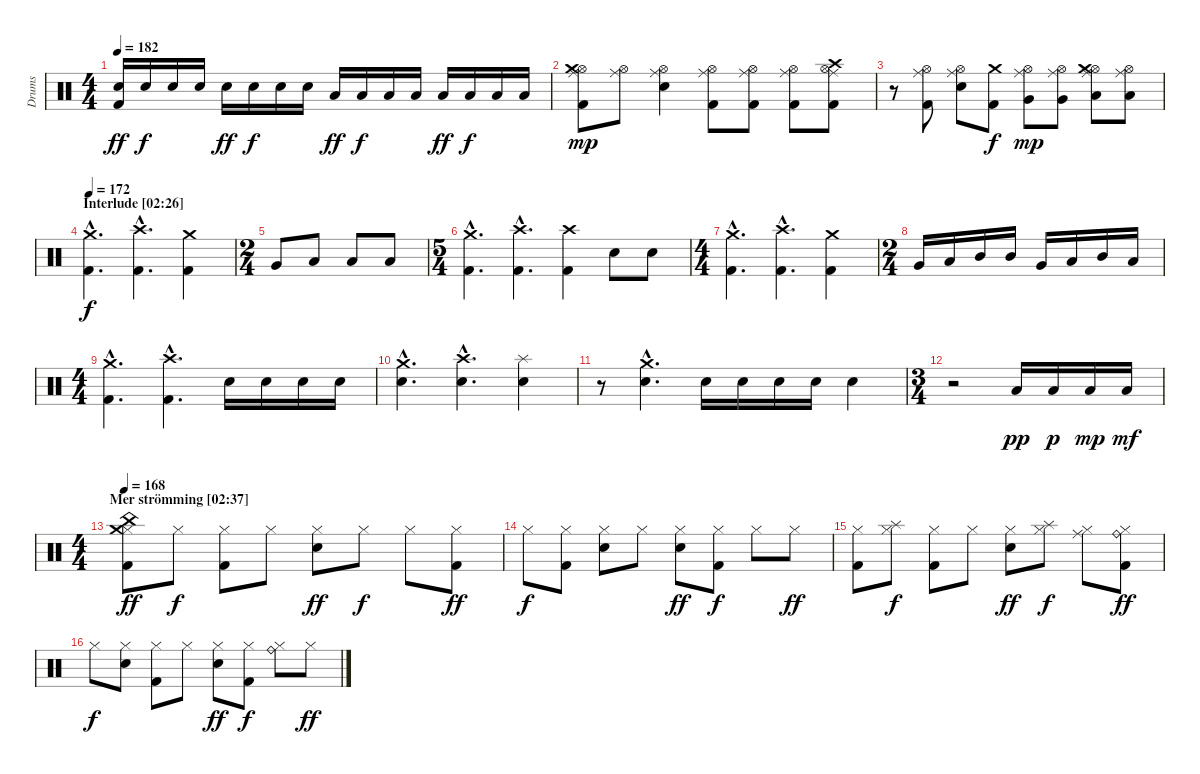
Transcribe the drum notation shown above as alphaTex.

\track ("Drums" "Drums") {instrument percussion}
\staff {score}
\articulation defaults
\ts (4 4)
\tempo 182
\clef neutral
\ks c
("Electric Snare (hit)" "Kick (hit) 2").16{dy ff} "Electric Snare (hit)".16{dy f} "Electric Snare (hit)".16 "Electric Snare (hit)".16 "Electric Snare (hit)".16{dy ff} "Electric Snare (hit)".16{dy f} "Electric Snare (hit)".16 "Electric Snare (hit)".16 "Low Tom (hit)".16{dy ff} "Low Tom (hit)".16{dy f} "Low Tom (hit)".16 "Low Tom (hit)".16 "Low Tom (hit)".16{dy ff} "Low Tom (hit)".16{dy f} "Low Tom (hit)".16 "Low Tom (hit)".16 |
("Ride (middle)" "Hi-Hat (open)" "Crash medium (hit)" "Kick (hit) 2").8{dy mp} ("Ride (middle)" "Hi-Hat (open)").8 ("Ride (middle)" "Hi-Hat (open)" "Electric Snare (hit)").4 ("Ride (middle)" "Hi-Hat (open)" "Kick (hit) 2").8 ("Ride (middle)" "Hi-Hat (open)" "Kick (hit) 2").8 ("Ride (middle)" "Hi-Hat (open)" "Kick (hit) 2").8 ("Ride (middle)" "Hi-Hat (open)" "Crash high (hit)" "Kick (hit) 2").8 |
r.8 ("Ride (middle)" "Hi-Hat (open)" "Kick (hit) 2").8 ("Ride (middle)" "Hi-Hat (open)" "Electric Snare (hit)").8 ("Crash medium (hit)" "Kick (hit) 2").8{dy f} ("Ride (middle)" "Hi-Hat (open)" "Very Low Tom (hit)").8{dy mp} ("Ride (middle)" "Hi-Hat (open)" "Very Low Tom (hit)").8 ("Ride (middle)" "Hi-Hat (open)" "Crash medium (hit)" "Low Tom (hit)").8 ("Ride (middle)" "Hi-Hat (open)" "Low Floor Tom (hit)").8 |
\section ("" "Interlude [02:26]")
\tempo 172
("Crash medium (hit)"{hac} "Kick (hit) 2"{hac}).4{d dy f} ("Crash high (hit)"{hac} "Kick (hit) 2"{hac}).4{d} ("Crash medium (hit)" "Kick (hit) 2").4 |
\ts (2 4)
"Very Low Tom (hit)".8 "Low Tom (hit)".8 "Low Floor Tom (hit)".8 "Low Tom (hit)".8 |
\ts (5 4)
("Crash medium (hit)"{hac} "Kick (hit) 2"{hac}).4{d} ("Crash high (hit)"{hac} "Kick (hit) 2"{hac}).4{d} ("Crash high (hit)" "Kick (hit) 2").4 "Electric Snare (hit)".8 "Electric Snare (hit)".8 |
\ts (4 4)
("Crash medium (hit)"{hac} "Kick (hit) 2"{hac}).4{d} ("Crash high (hit)"{hac} "Kick (hit) 2"{hac}).4{d} ("Crash medium (hit)" "Kick (hit) 2").4 |
\ts (2 4)
"Very Low Tom (hit)".16 "Low Tom (hit)".16 "Mid Tom (hit)".16 "Mid Tom (hit)".16 "Very Low Tom (hit)".16 "Low Tom (hit)".16 "Mid Tom (hit)".16 "Low Tom (hit)".16 |
\ts (4 4)
("Crash medium (hit)"{hac} "Kick (hit) 2"{hac}).4{d} ("Crash high (hit)"{hac} "Kick (hit) 2"{hac}).4{d} "Electric Snare (hit)".16 "Electric Snare (hit)".16 "Electric Snare (hit)".16 "Electric Snare (hit)".16 |
("Crash medium (hit)"{hac} "Electric Snare (hit)"{hac}).4{d} ("Crash high (hit)"{hac} "Electric Snare (hit)"{hac}).4{d} ("Splash (hit)" "Electric Snare (hit)").4 |
r.8 ("Crash medium (hit)"{hac} "Electric Snare (hit)"{hac}).4{d} "Electric Snare (hit)".16 "Electric Snare (hit)".16 "Electric Snare (hit)".16 "Electric Snare (hit)".16 "Electric Snare (hit)".4 |
\ts (3 4)
r.2 "Low Tom (hit)".16{dy pp} "Low Tom (hit)".16{dy p} "Low Tom (hit)".16{dy mp} "Low Tom (hit)".16{dy mf} |
\ts (4 4)
\section ("" "Mer strömming [02:37]")
\tempo 168
("Hi-Hat (closed)" "China (hit)" "Crash medium (hit)" "Kick (hit) 2").8{dy ff} "Hi-Hat (closed)".8{dy f} ("Hi-Hat (closed)" "Kick (hit) 2").8 "Hi-Hat (closed)".8 ("Hi-Hat (closed)" "Electric Snare (hit)").8{dy ff} "Hi-Hat (closed)".8{dy f} "Hi-Hat (closed)".8 ("Hi-Hat (closed)" "Kick (hit) 2").8{dy ff} |
"Hi-Hat (closed)".8{dy f} ("Hi-Hat (closed)" "Kick (hit) 2").8 ("Hi-Hat (closed)" "Electric Snare (hit)").8 "Hi-Hat (closed)".8 ("Hi-Hat (closed)" "Electric Snare (hit)").8{dy ff} ("Hi-Hat (closed)" "Kick (hit) 2").8{dy f} "Hi-Hat (closed)".8 "Hi-Hat (closed)".8{dy ff} |
("Hi-Hat (closed)" "Kick (hit) 2").8 ("Hi-Hat (closed)" "Splash (hit)").8{dy f} ("Hi-Hat (closed)" "Kick (hit) 2").8 "Hi-Hat (closed)".8 ("Hi-Hat (closed)" "Electric Snare (hit)").8{dy ff} ("Hi-Hat (closed)" "Splash (hit)").8{dy f} ("Hi-Hat (closed)" "Ride (middle)").8 ("Hi-Hat (closed)" "Ride (bell)" "Kick (hit) 2").8{dy ff} |
"Hi-Hat (closed)".8{dy f} ("Hi-Hat (closed)" "Electric Snare (hit)").8 ("Hi-Hat (closed)" "Kick (hit) 2").8 "Hi-Hat (closed)".8 ("Hi-Hat (closed)" "Electric Snare (hit)").8{dy ff} ("Hi-Hat (closed)" "Kick (hit) 2").8{dy f} ("Hi-Hat (closed)" "Ride (bell)").8 "Hi-Hat (closed)".8{dy ff}
